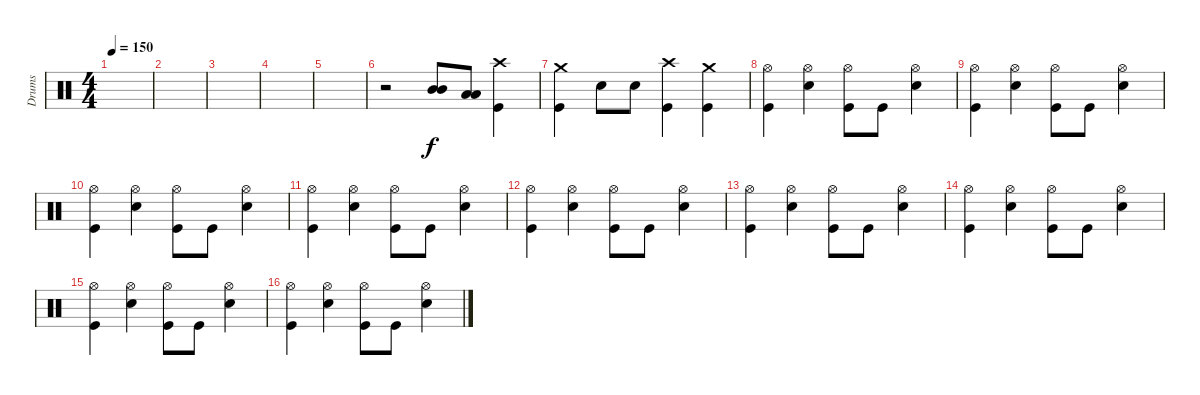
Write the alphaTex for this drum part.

\track ("Drums" "Drums") {instrument percussion}
\staff {score}
\articulation defaults
\ts (4 4)
\tempo 150
\clef neutral
\ks c
|
|
|
|
|
r.2 ("Mid Tom (hit)" "Mid Tom (hit)").8 ("Low Tom (hit)" "Low Tom (hit)").8 ("Crash high (hit)" "Kick (hit)").4 |
("Crash medium (hit)" "Kick (hit)").4 "Snare (hit) 2".8 "Snare (hit) 2".8 ("Crash high (hit)" "Kick (hit)").4 ("Crash medium (hit)" "Kick (hit)").4 |
("Hi-Hat (open)" "Kick (hit)").4 ("Hi-Hat (open)" "Snare (hit) 2").4 ("Hi-Hat (open)" "Kick (hit)").8 "Kick (hit)".8 ("Hi-Hat (open)" "Snare (hit) 2").4 |
("Hi-Hat (open)" "Kick (hit)").4 ("Hi-Hat (open)" "Snare (hit) 2").4 ("Hi-Hat (open)" "Kick (hit)").8 "Kick (hit)".8 ("Hi-Hat (open)" "Snare (hit) 2").4 |
("Hi-Hat (open)" "Kick (hit)").4 ("Hi-Hat (open)" "Snare (hit) 2").4 ("Hi-Hat (open)" "Kick (hit)").8 "Kick (hit)".8 ("Hi-Hat (open)" "Snare (hit) 2").4 |
("Hi-Hat (open)" "Kick (hit)").4 ("Hi-Hat (open)" "Snare (hit) 2").4 ("Hi-Hat (open)" "Kick (hit)").8 "Kick (hit)".8 ("Hi-Hat (open)" "Snare (hit) 2").4 |
("Hi-Hat (open)" "Kick (hit)").4 ("Hi-Hat (open)" "Snare (hit) 2").4 ("Hi-Hat (open)" "Kick (hit)").8 "Kick (hit)".8 ("Hi-Hat (open)" "Snare (hit) 2").4 |
("Hi-Hat (open)" "Kick (hit)").4 ("Hi-Hat (open)" "Snare (hit) 2").4 ("Hi-Hat (open)" "Kick (hit)").8 "Kick (hit)".8 ("Hi-Hat (open)" "Snare (hit) 2").4 |
("Hi-Hat (open)" "Kick (hit)").4 ("Hi-Hat (open)" "Snare (hit) 2").4 ("Hi-Hat (open)" "Kick (hit)").8 "Kick (hit)".8 ("Hi-Hat (open)" "Snare (hit) 2").4 |
("Hi-Hat (open)" "Kick (hit)").4 ("Hi-Hat (open)" "Snare (hit) 2").4 ("Hi-Hat (open)" "Kick (hit)").8 "Kick (hit)".8 ("Hi-Hat (open)" "Snare (hit) 2").4 |
("Hi-Hat (open)" "Kick (hit)").4 ("Hi-Hat (open)" "Snare (hit) 2").4 ("Hi-Hat (open)" "Kick (hit)").8 "Kick (hit)".8 ("Hi-Hat (open)" "Snare (hit) 2").4
